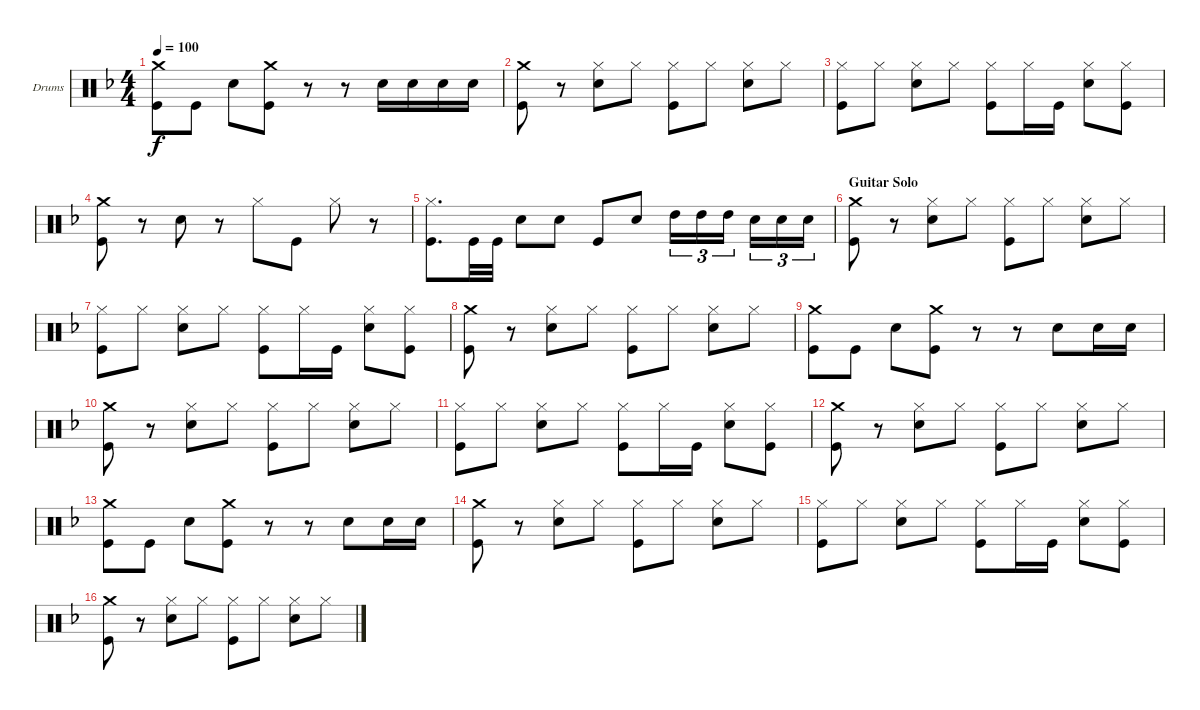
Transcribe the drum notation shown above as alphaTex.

\bracketExtendMode groupsimilarinstruments
\firstSystemTrackNameOrientation horizontal
\otherSystemsTrackNameOrientation horizontal
\track ("Drums" "Drums") {instrument percussion}
\staff {score}
\articulation defaults
\ts (4 4)
\tempo 100
\clef neutral
\ks dminor
("Crash medium (hit)" "Kick (hit)").8{dy f} "Kick (hit)".8 "Snare (hit) 2".8 ("Crash medium (hit)" "Kick (hit)").8 r.8 r.8 "Snare (hit) 2".16 "Snare (hit) 2".16 "Snare (hit) 2".16 "Snare (hit) 2".16 |
("Crash medium (hit)" "Kick (hit)").8 r.8 ("Hi-Hat (closed)" "Snare (hit) 2").8 "Hi-Hat (closed)".8 ("Hi-Hat (closed)" "Kick (hit)").8 "Hi-Hat (closed)".8 ("Hi-Hat (closed)" "Snare (hit) 2").8 "Hi-Hat (closed)".8 |
("Hi-Hat (closed)" "Kick (hit)").8 "Hi-Hat (closed)".8 ("Hi-Hat (closed)" "Snare (hit) 2").8 "Hi-Hat (closed)".8 ("Hi-Hat (closed)" "Kick (hit)").8 "Hi-Hat (closed)".16 "Kick (hit)".16 ("Hi-Hat (closed)" "Snare (hit) 2").8 ("Hi-Hat (closed)" "Kick (hit)").8 |
("Crash medium (hit)" "Kick (hit)").8 r.8 "Snare (hit) 2".8 r.8 "Hi-Hat (closed)".8 "Kick (hit)".8 "Hi-Hat (closed)".8 r.8 |
("Hi-Hat (closed)" "Kick (hit)").8{d} "Kick (hit)".32 "Kick (hit)".32 "Snare (hit) 2".8 "Snare (hit) 2".8 "Kick (hit)".8 "Snare (hit) 2".8 "High Tom (hit)".16{tu (3 2)} "High Tom (hit)".16{tu (3 2)} "High Tom (hit)".16{tu (3 2)} "Snare (hit) 2".16{tu (3 2)} "Snare (hit) 2".16{tu (3 2)} "Snare (hit) 2".16{tu (3 2)} |
\section ("" "Guitar Solo")
("Crash medium (hit)" "Kick (hit)").8 r.8 ("Hi-Hat (closed)" "Snare (hit) 2").8 "Hi-Hat (closed)".8 ("Hi-Hat (closed)" "Kick (hit)").8 "Hi-Hat (closed)".8 ("Hi-Hat (closed)" "Snare (hit) 2").8 "Hi-Hat (closed)".8 |
("Hi-Hat (closed)" "Kick (hit)").8 "Hi-Hat (closed)".8 ("Hi-Hat (closed)" "Snare (hit) 2").8 "Hi-Hat (closed)".8 ("Hi-Hat (closed)" "Kick (hit)").8 "Hi-Hat (closed)".16 "Kick (hit)".16 ("Hi-Hat (closed)" "Snare (hit) 2").8 ("Hi-Hat (closed)" "Kick (hit)").8 |
("Crash medium (hit)" "Kick (hit)").8 r.8 ("Hi-Hat (closed)" "Snare (hit) 2").8 "Hi-Hat (closed)".8 ("Hi-Hat (closed)" "Kick (hit)").8 "Hi-Hat (closed)".8 ("Hi-Hat (closed)" "Snare (hit) 2").8 "Hi-Hat (closed)".8 |
("Crash medium (hit)" "Kick (hit)").8 "Kick (hit)".8 "Snare (hit) 2".8 ("Crash medium (hit)" "Kick (hit)").8 r.8 r.8 "Snare (hit) 2".8 "Snare (hit) 2".16 "Snare (hit) 2".16 |
("Crash medium (hit)" "Kick (hit)").8 r.8 ("Hi-Hat (closed)" "Snare (hit) 2").8 "Hi-Hat (closed)".8 ("Hi-Hat (closed)" "Kick (hit)").8 "Hi-Hat (closed)".8 ("Hi-Hat (closed)" "Snare (hit) 2").8 "Hi-Hat (closed)".8 |
("Hi-Hat (closed)" "Kick (hit)").8 "Hi-Hat (closed)".8 ("Hi-Hat (closed)" "Snare (hit) 2").8 "Hi-Hat (closed)".8 ("Hi-Hat (closed)" "Kick (hit)").8 "Hi-Hat (closed)".16 "Kick (hit)".16 ("Hi-Hat (closed)" "Snare (hit) 2").8 ("Hi-Hat (closed)" "Kick (hit)").8 |
("Crash medium (hit)" "Kick (hit)").8 r.8 ("Hi-Hat (closed)" "Snare (hit) 2").8 "Hi-Hat (closed)".8 ("Hi-Hat (closed)" "Kick (hit)").8 "Hi-Hat (closed)".8 ("Hi-Hat (closed)" "Snare (hit) 2").8 "Hi-Hat (closed)".8 |
("Crash medium (hit)" "Kick (hit)").8 "Kick (hit)".8 "Snare (hit) 2".8 ("Crash medium (hit)" "Kick (hit)").8 r.8 r.8 "Snare (hit) 2".8 "Snare (hit) 2".16 "Snare (hit) 2".16 |
("Crash medium (hit)" "Kick (hit)").8 r.8 ("Hi-Hat (closed)" "Snare (hit) 2").8 "Hi-Hat (closed)".8 ("Hi-Hat (closed)" "Kick (hit)").8 "Hi-Hat (closed)".8 ("Hi-Hat (closed)" "Snare (hit) 2").8 "Hi-Hat (closed)".8 |
("Hi-Hat (closed)" "Kick (hit)").8 "Hi-Hat (closed)".8 ("Hi-Hat (closed)" "Snare (hit) 2").8 "Hi-Hat (closed)".8 ("Hi-Hat (closed)" "Kick (hit)").8 "Hi-Hat (closed)".16 "Kick (hit)".16 ("Hi-Hat (closed)" "Snare (hit) 2").8 ("Hi-Hat (closed)" "Kick (hit)").8 |
("Crash medium (hit)" "Kick (hit)").8 r.8 ("Hi-Hat (closed)" "Snare (hit) 2").8 "Hi-Hat (closed)".8 ("Hi-Hat (closed)" "Kick (hit)").8 "Hi-Hat (closed)".8 ("Hi-Hat (closed)" "Snare (hit) 2").8 "Hi-Hat (closed)".8
